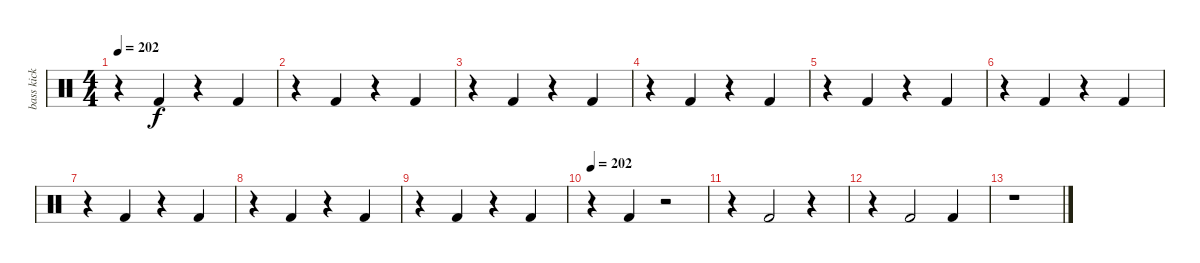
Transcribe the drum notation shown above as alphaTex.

\track ("bass kick" "bass kick") {instrument percussion}
\staff {score}
\articulation defaults
\ts (4 4)
\tempo 202
\clef neutral
\ks c
r.4{dy f} "Kick (hit) 2".4 r.4 "Kick (hit) 2".4 |
r.4 "Kick (hit) 2".4 r.4 "Kick (hit) 2".4 |
r.4 "Kick (hit) 2".4 r.4 "Kick (hit) 2".4 |
r.4 "Kick (hit) 2".4 r.4 "Kick (hit) 2".4 |
r.4 "Kick (hit) 2".4 r.4 "Kick (hit) 2".4 |
r.4 "Kick (hit) 2".4 r.4 "Kick (hit) 2".4 |
r.4 "Kick (hit) 2".4 r.4 "Kick (hit) 2".4 |
r.4 "Kick (hit) 2".4 r.4 "Kick (hit) 2".4 |
r.4 "Kick (hit) 2".4 r.4 "Kick (hit) 2".4 |
\tempo 202
r.4 "Kick (hit) 2".4 r.2 |
r.4 "Kick (hit) 2".2 r.4 |
r.4 "Kick (hit) 2".2 "Kick (hit) 2".4 |
r.1
